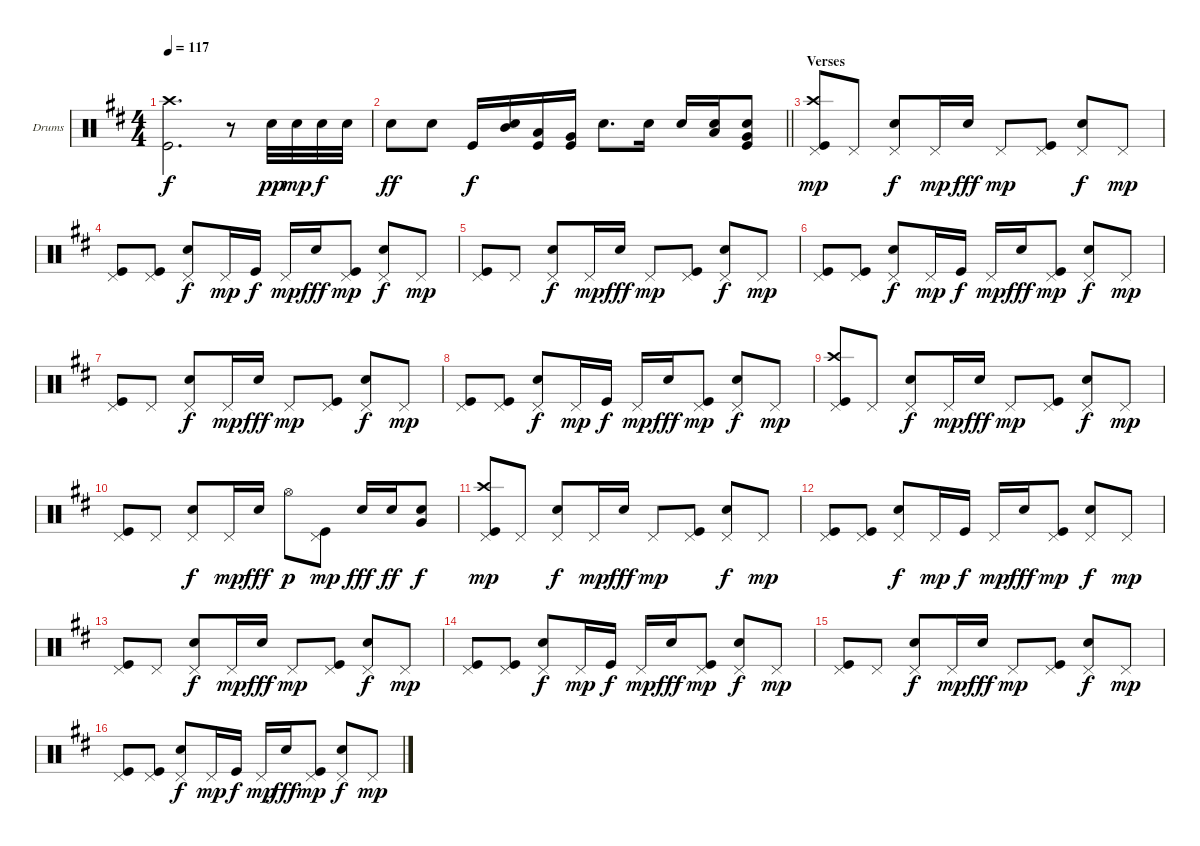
\bracketExtendMode groupsimilarinstruments
\firstSystemTrackNameOrientation horizontal
\otherSystemsTrackNameOrientation horizontal
\track ("Drumkit" "Drums") {instrument percussion}
\staff {score}
\articulation defaults
\ts (4 4)
\tempo 117
\clef neutral
\ks d
("Kick (hit)" "Crash high (hit)").2{d dy f} r.8 "Snare (hit) 2".32{dy pp} "Snare (hit) 2".32{dy mp} "Snare (hit) 2".32{dy f} "Snare (hit) 2".32 |
\barLineRight lightlight "Snare (hit) 2".8{dy ff} "Snare (hit) 2".8 "Kick (hit)".16{dy f}
("Snare (hit) 2" "Mid Tom (hit)").16 ("Kick (hit)" "Low Tom (hit)").16 ("Kick (hit)" "Very Low Tom (hit)").16 "Snare (hit) 2".8{d} "Snare (hit) 2".16 "Snare (hit) 2".16 ("Snare (hit) 2" "Low Tom (hit)").16 ("Kick (hit)" "Snare (hit) 2" "Very Low Tom (hit)").8 |
\section ("" "Verses")
("Pedal Hi-Hat (hit)" "Crash high (hit)" "Kick (hit)").8{dy mp} "Pedal Hi-Hat (hit)".8 ("Pedal Hi-Hat (hit)" "Snare (hit) 2").8{dy f} "Pedal Hi-Hat (hit)".16{dy mp} "Snare (hit) 2".16{dy fff} "Pedal Hi-Hat (hit)".8{dy mp} ("Pedal Hi-Hat (hit)" "Kick (hit)").8 ("Pedal Hi-Hat (hit)" "Snare (hit) 2").8{dy f} "Pedal Hi-Hat (hit)".8{dy mp} |
("Pedal Hi-Hat (hit)" "Kick (hit)").8 ("Pedal Hi-Hat (hit)" "Kick (hit)").8 ("Pedal Hi-Hat (hit)" "Snare (hit) 2").8{dy f} "Pedal Hi-Hat (hit)".16{dy mp} "Kick (hit)".16{dy f} "Pedal Hi-Hat (hit)".16{dy mp} "Snare (hit) 2".16{dy fff} ("Pedal Hi-Hat (hit)" "Kick (hit)").8{dy mp} ("Pedal Hi-Hat (hit)" "Snare (hit) 2").8{dy f} "Pedal Hi-Hat (hit)".8{dy mp} |
("Pedal Hi-Hat (hit)" "Kick (hit)").8 "Pedal Hi-Hat (hit)".8 ("Pedal Hi-Hat (hit)" "Snare (hit) 2").8{dy f} "Pedal Hi-Hat (hit)".16{dy mp} "Snare (hit) 2".16{dy fff} "Pedal Hi-Hat (hit)".8{dy mp} ("Pedal Hi-Hat (hit)" "Kick (hit)").8 ("Pedal Hi-Hat (hit)" "Snare (hit) 2").8{dy f} "Pedal Hi-Hat (hit)".8{dy mp} |
("Pedal Hi-Hat (hit)" "Kick (hit)").8 ("Pedal Hi-Hat (hit)" "Kick (hit)").8 ("Pedal Hi-Hat (hit)" "Snare (hit) 2").8{dy f} "Pedal Hi-Hat (hit)".16{dy mp} "Kick (hit)".16{dy f} "Pedal Hi-Hat (hit)".16{dy mp} "Snare (hit) 2".16{dy fff} ("Pedal Hi-Hat (hit)" "Kick (hit)").8{dy mp} ("Pedal Hi-Hat (hit)" "Snare (hit) 2").8{dy f} "Pedal Hi-Hat (hit)".8{dy mp} |
("Pedal Hi-Hat (hit)" "Kick (hit)").8 "Pedal Hi-Hat (hit)".8 ("Pedal Hi-Hat (hit)" "Snare (hit) 2").8{dy f} "Pedal Hi-Hat (hit)".16{dy mp} "Snare (hit) 2".16{dy fff} "Pedal Hi-Hat (hit)".8{dy mp} ("Pedal Hi-Hat (hit)" "Kick (hit)").8 ("Pedal Hi-Hat (hit)" "Snare (hit) 2").8{dy f} "Pedal Hi-Hat (hit)".8{dy mp} |
("Pedal Hi-Hat (hit)" "Kick (hit)").8 ("Pedal Hi-Hat (hit)" "Kick (hit)").8 ("Pedal Hi-Hat (hit)" "Snare (hit) 2").8{dy f} "Pedal Hi-Hat (hit)".16{dy mp} "Kick (hit)".16{dy f} "Pedal Hi-Hat (hit)".16{dy mp} "Snare (hit) 2".16{dy fff} ("Pedal Hi-Hat (hit)" "Kick (hit)").8{dy mp} ("Pedal Hi-Hat (hit)" "Snare (hit) 2").8{dy f} "Pedal Hi-Hat (hit)".8{dy mp} |
("Pedal Hi-Hat (hit)" "Crash high (hit)" "Kick (hit)").8 "Pedal Hi-Hat (hit)".8 ("Pedal Hi-Hat (hit)" "Snare (hit) 2").8{dy f} "Pedal Hi-Hat (hit)".16{dy mp} "Snare (hit) 2".16{dy fff} "Pedal Hi-Hat (hit)".8{dy mp} ("Pedal Hi-Hat (hit)" "Kick (hit)").8 ("Pedal Hi-Hat (hit)" "Snare (hit) 2").8{dy f} "Pedal Hi-Hat (hit)".8{dy mp} |
("Pedal Hi-Hat (hit)" "Kick (hit)").8 "Pedal Hi-Hat (hit)".8 ("Pedal Hi-Hat (hit)" "Snare (hit) 2").8{dy f} "Pedal Hi-Hat (hit)".16{dy mp} "Snare (hit) 2".16{dy fff} "Hi-Hat (open)".8{dy p} ("Pedal Hi-Hat (hit)" "Kick (hit)").8{dy mp} "Snare (hit) 2".16{dy fff} "Snare (hit) 2".16{dy ff} ("Snare (hit) 2" "Very Low Tom (hit)").8{dy f} |
("Pedal Hi-Hat (hit)" "Crash high (hit)" "Kick (hit)").8{dy mp} "Pedal Hi-Hat (hit)".8 ("Pedal Hi-Hat (hit)" "Snare (hit) 2").8{dy f} "Pedal Hi-Hat (hit)".16{dy mp} "Snare (hit) 2".16{dy fff} "Pedal Hi-Hat (hit)".8{dy mp} ("Pedal Hi-Hat (hit)" "Kick (hit)").8 ("Pedal Hi-Hat (hit)" "Snare (hit) 2").8{dy f} "Pedal Hi-Hat (hit)".8{dy mp} |
("Pedal Hi-Hat (hit)" "Kick (hit)").8 ("Pedal Hi-Hat (hit)" "Kick (hit)").8 ("Pedal Hi-Hat (hit)" "Snare (hit) 2").8{dy f} "Pedal Hi-Hat (hit)".16{dy mp} "Kick (hit)".16{dy f} "Pedal Hi-Hat (hit)".16{dy mp} "Snare (hit) 2".16{dy fff} ("Pedal Hi-Hat (hit)" "Kick (hit)").8{dy mp} ("Pedal Hi-Hat (hit)" "Snare (hit) 2").8{dy f} "Pedal Hi-Hat (hit)".8{dy mp} |
("Pedal Hi-Hat (hit)" "Kick (hit)").8 "Pedal Hi-Hat (hit)".8 ("Pedal Hi-Hat (hit)" "Snare (hit) 2").8{dy f} "Pedal Hi-Hat (hit)".16{dy mp} "Snare (hit) 2".16{dy fff} "Pedal Hi-Hat (hit)".8{dy mp} ("Pedal Hi-Hat (hit)" "Kick (hit)").8 ("Pedal Hi-Hat (hit)" "Snare (hit) 2").8{dy f} "Pedal Hi-Hat (hit)".8{dy mp} |
("Pedal Hi-Hat (hit)" "Kick (hit)").8 ("Pedal Hi-Hat (hit)" "Kick (hit)").8 ("Pedal Hi-Hat (hit)" "Snare (hit) 2").8{dy f} "Pedal Hi-Hat (hit)".16{dy mp} "Kick (hit)".16{dy f} "Pedal Hi-Hat (hit)".16{dy mp} "Snare (hit) 2".16{dy fff} ("Pedal Hi-Hat (hit)" "Kick (hit)").8{dy mp} ("Pedal Hi-Hat (hit)" "Snare (hit) 2").8{dy f} "Pedal Hi-Hat (hit)".8{dy mp} |
("Pedal Hi-Hat (hit)" "Kick (hit)").8 "Pedal Hi-Hat (hit)".8 ("Pedal Hi-Hat (hit)" "Snare (hit) 2").8{dy f} "Pedal Hi-Hat (hit)".16{dy mp} "Snare (hit) 2".16{dy fff} "Pedal Hi-Hat (hit)".8{dy mp} ("Pedal Hi-Hat (hit)" "Kick (hit)").8 ("Pedal Hi-Hat (hit)" "Snare (hit) 2").8{dy f} "Pedal Hi-Hat (hit)".8{dy mp} |
("Pedal Hi-Hat (hit)" "Kick (hit)").8 ("Pedal Hi-Hat (hit)" "Kick (hit)").8 ("Pedal Hi-Hat (hit)" "Snare (hit) 2").8{dy f} "Pedal Hi-Hat (hit)".16{dy mp} "Kick (hit)".16{dy f} "Pedal Hi-Hat (hit)".16{dy mp} "Snare (hit) 2".16{dy fff} ("Pedal Hi-Hat (hit)" "Kick (hit)").8{dy mp} ("Pedal Hi-Hat (hit)" "Snare (hit) 2").8{dy f} "Pedal Hi-Hat (hit)".8{dy mp}
